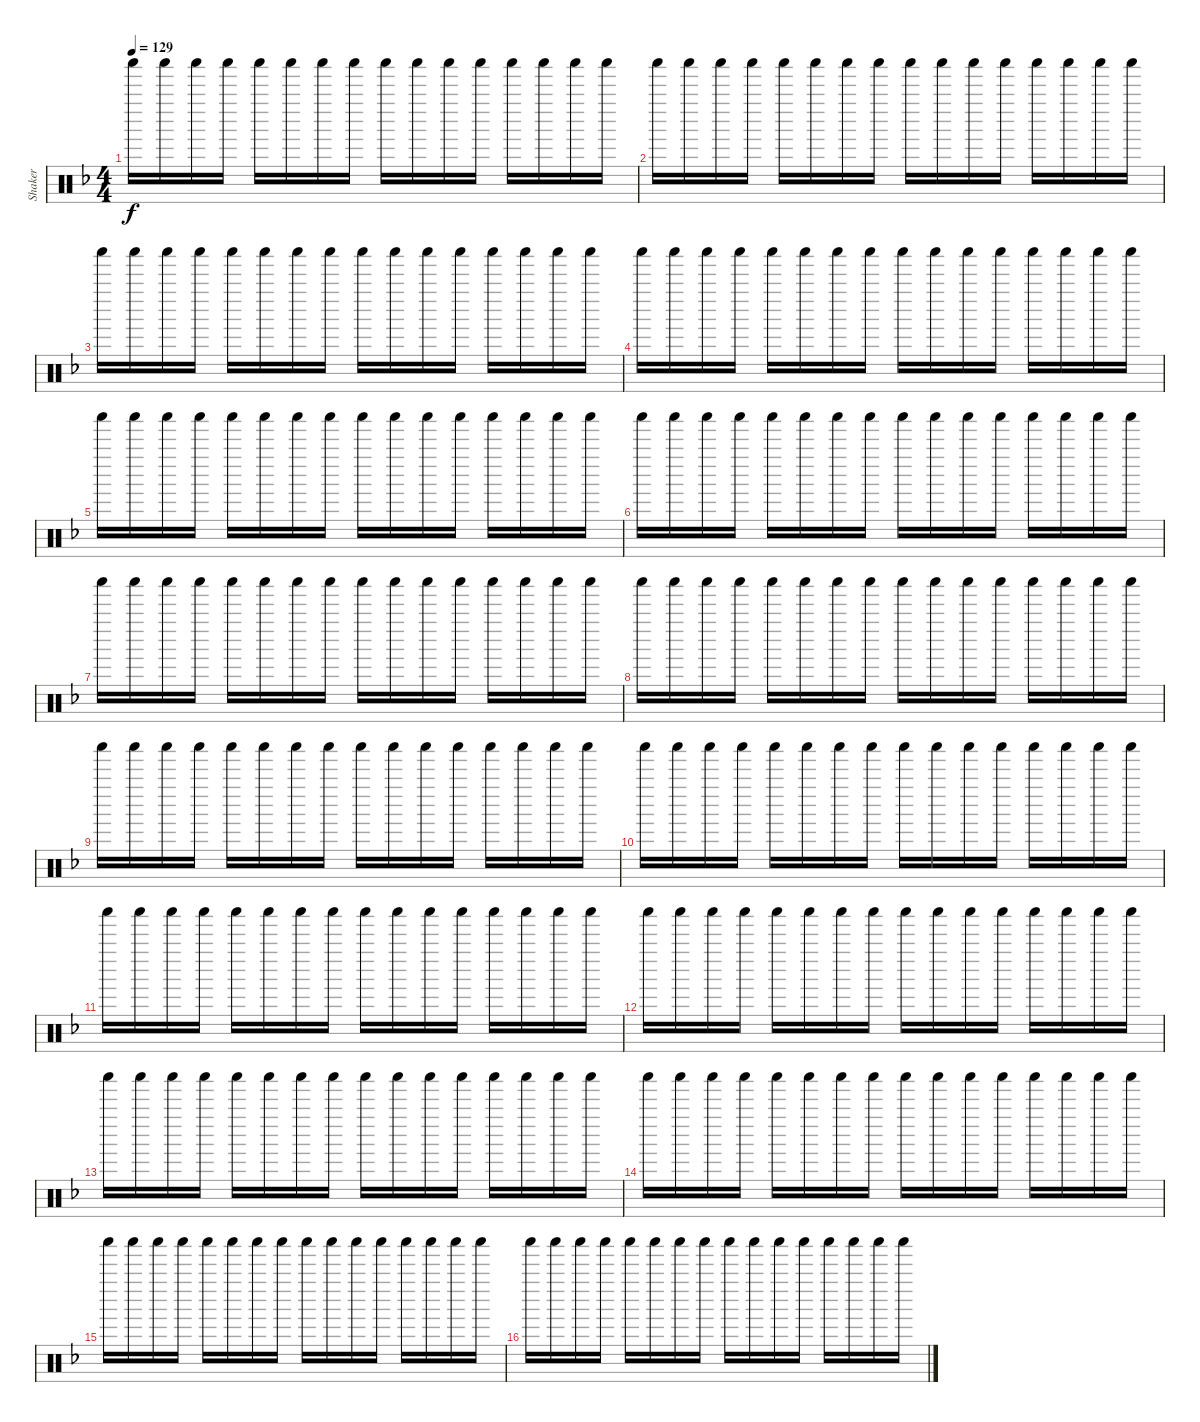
\track ("Shaker" "Shaker") {instrument percussion}
\staff {score}
\articulation defaults
\ts (4 4)
\tempo 129
\clef neutral
\ks dminor "Shaker (hit)".16{dy f} "Shaker (hit)".16 "Shaker (hit)".16 "Shaker (hit)".16 "Shaker (hit)".16 "Shaker (hit)".16 "Shaker (hit)".16 "Shaker (hit)".16 "Shaker (hit)".16 "Shaker (hit)".16 "Shaker (hit)".16 "Shaker (hit)".16 "Shaker (hit)".16 "Shaker (hit)".16 "Shaker (hit)".16 "Shaker (hit)".16
|
"Shaker (hit)".16 "Shaker (hit)".16 "Shaker (hit)".16 "Shaker (hit)".16 "Shaker (hit)".16 "Shaker (hit)".16 "Shaker (hit)".16 "Shaker (hit)".16 "Shaker (hit)".16 "Shaker (hit)".16 "Shaker (hit)".16 "Shaker (hit)".16 "Shaker (hit)".16 "Shaker (hit)".16 "Shaker (hit)".16 "Shaker (hit)".16 |
"Shaker (hit)".16 "Shaker (hit)".16 "Shaker (hit)".16 "Shaker (hit)".16 "Shaker (hit)".16 "Shaker (hit)".16 "Shaker (hit)".16 "Shaker (hit)".16 "Shaker (hit)".16 "Shaker (hit)".16 "Shaker (hit)".16 "Shaker (hit)".16 "Shaker (hit)".16 "Shaker (hit)".16 "Shaker (hit)".16 "Shaker (hit)".16 |
"Shaker (hit)".16 "Shaker (hit)".16 "Shaker (hit)".16 "Shaker (hit)".16 "Shaker (hit)".16 "Shaker (hit)".16 "Shaker (hit)".16 "Shaker (hit)".16 "Shaker (hit)".16 "Shaker (hit)".16 "Shaker (hit)".16 "Shaker (hit)".16 "Shaker (hit)".16 "Shaker (hit)".16 "Shaker (hit)".16 "Shaker (hit)".16 |
"Shaker (hit)".16 "Shaker (hit)".16 "Shaker (hit)".16 "Shaker (hit)".16 "Shaker (hit)".16 "Shaker (hit)".16 "Shaker (hit)".16 "Shaker (hit)".16 "Shaker (hit)".16 "Shaker (hit)".16 "Shaker (hit)".16 "Shaker (hit)".16 "Shaker (hit)".16 "Shaker (hit)".16 "Shaker (hit)".16 "Shaker (hit)".16 |
"Shaker (hit)".16 "Shaker (hit)".16 "Shaker (hit)".16 "Shaker (hit)".16 "Shaker (hit)".16 "Shaker (hit)".16 "Shaker (hit)".16 "Shaker (hit)".16 "Shaker (hit)".16 "Shaker (hit)".16 "Shaker (hit)".16 "Shaker (hit)".16 "Shaker (hit)".16 "Shaker (hit)".16 "Shaker (hit)".16 "Shaker (hit)".16 |
"Shaker (hit)".16 "Shaker (hit)".16 "Shaker (hit)".16 "Shaker (hit)".16 "Shaker (hit)".16 "Shaker (hit)".16 "Shaker (hit)".16 "Shaker (hit)".16 "Shaker (hit)".16 "Shaker (hit)".16 "Shaker (hit)".16 "Shaker (hit)".16 "Shaker (hit)".16 "Shaker (hit)".16 "Shaker (hit)".16 "Shaker (hit)".16 |
"Shaker (hit)".16 "Shaker (hit)".16 "Shaker (hit)".16 "Shaker (hit)".16 "Shaker (hit)".16 "Shaker (hit)".16 "Shaker (hit)".16 "Shaker (hit)".16 "Shaker (hit)".16 "Shaker (hit)".16 "Shaker (hit)".16 "Shaker (hit)".16 "Shaker (hit)".16 "Shaker (hit)".16 "Shaker (hit)".16 "Shaker (hit)".16 |
"Shaker (hit)".16 "Shaker (hit)".16 "Shaker (hit)".16 "Shaker (hit)".16 "Shaker (hit)".16 "Shaker (hit)".16 "Shaker (hit)".16 "Shaker (hit)".16 "Shaker (hit)".16 "Shaker (hit)".16 "Shaker (hit)".16 "Shaker (hit)".16 "Shaker (hit)".16 "Shaker (hit)".16 "Shaker (hit)".16 "Shaker (hit)".16 |
"Shaker (hit)".16 "Shaker (hit)".16 "Shaker (hit)".16 "Shaker (hit)".16 "Shaker (hit)".16 "Shaker (hit)".16 "Shaker (hit)".16 "Shaker (hit)".16 "Shaker (hit)".16 "Shaker (hit)".16 "Shaker (hit)".16 "Shaker (hit)".16 "Shaker (hit)".16 "Shaker (hit)".16 "Shaker (hit)".16 "Shaker (hit)".16 |
"Shaker (hit)".16 "Shaker (hit)".16 "Shaker (hit)".16 "Shaker (hit)".16 "Shaker (hit)".16 "Shaker (hit)".16 "Shaker (hit)".16 "Shaker (hit)".16 "Shaker (hit)".16 "Shaker (hit)".16 "Shaker (hit)".16 "Shaker (hit)".16 "Shaker (hit)".16 "Shaker (hit)".16 "Shaker (hit)".16 "Shaker (hit)".16 |
"Shaker (hit)".16 "Shaker (hit)".16 "Shaker (hit)".16 "Shaker (hit)".16 "Shaker (hit)".16 "Shaker (hit)".16 "Shaker (hit)".16 "Shaker (hit)".16 "Shaker (hit)".16 "Shaker (hit)".16 "Shaker (hit)".16 "Shaker (hit)".16 "Shaker (hit)".16 "Shaker (hit)".16 "Shaker (hit)".16 "Shaker (hit)".16 |
"Shaker (hit)".16 "Shaker (hit)".16 "Shaker (hit)".16 "Shaker (hit)".16 "Shaker (hit)".16 "Shaker (hit)".16 "Shaker (hit)".16 "Shaker (hit)".16 "Shaker (hit)".16 "Shaker (hit)".16 "Shaker (hit)".16 "Shaker (hit)".16 "Shaker (hit)".16 "Shaker (hit)".16 "Shaker (hit)".16 "Shaker (hit)".16 |
"Shaker (hit)".16 "Shaker (hit)".16 "Shaker (hit)".16 "Shaker (hit)".16 "Shaker (hit)".16 "Shaker (hit)".16 "Shaker (hit)".16 "Shaker (hit)".16 "Shaker (hit)".16 "Shaker (hit)".16 "Shaker (hit)".16 "Shaker (hit)".16 "Shaker (hit)".16 "Shaker (hit)".16 "Shaker (hit)".16 "Shaker (hit)".16 |
"Shaker (hit)".16 "Shaker (hit)".16 "Shaker (hit)".16 "Shaker (hit)".16 "Shaker (hit)".16 "Shaker (hit)".16 "Shaker (hit)".16 "Shaker (hit)".16 "Shaker (hit)".16 "Shaker (hit)".16 "Shaker (hit)".16 "Shaker (hit)".16 "Shaker (hit)".16 "Shaker (hit)".16 "Shaker (hit)".16 "Shaker (hit)".16 |
"Shaker (hit)".16 "Shaker (hit)".16 "Shaker (hit)".16 "Shaker (hit)".16 "Shaker (hit)".16 "Shaker (hit)".16 "Shaker (hit)".16 "Shaker (hit)".16 "Shaker (hit)".16 "Shaker (hit)".16 "Shaker (hit)".16 "Shaker (hit)".16 "Shaker (hit)".16 "Shaker (hit)".16 "Shaker (hit)".16 "Shaker (hit)".16
